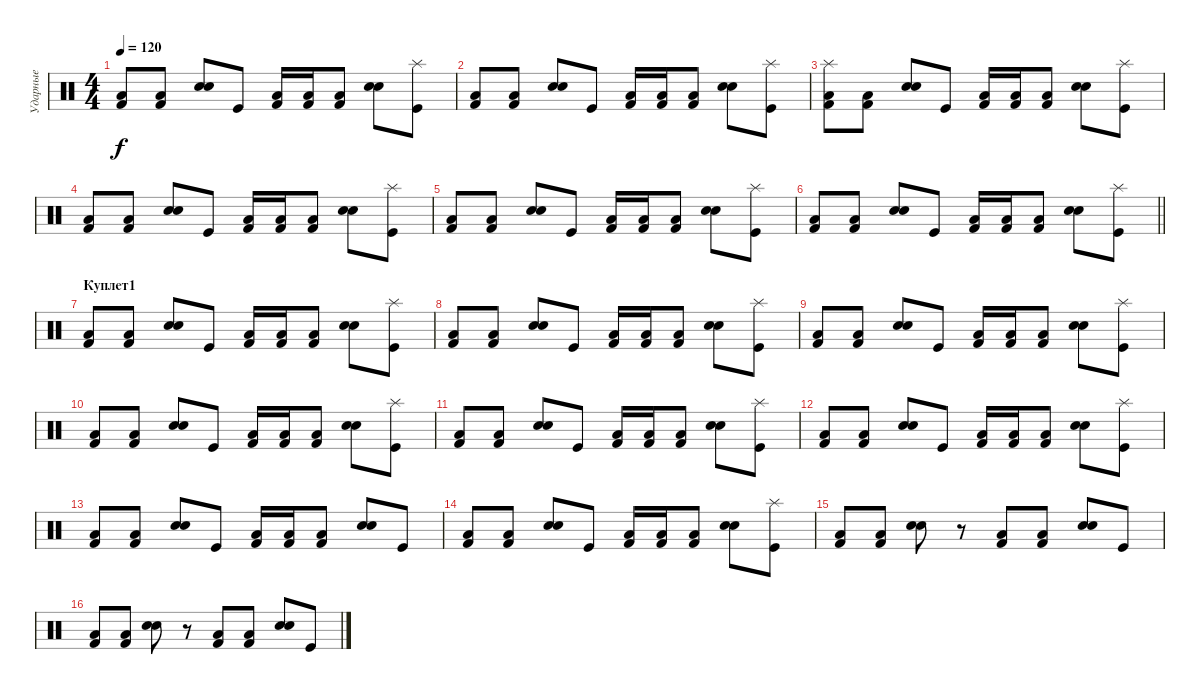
\track ("Ударные" "Ударные") {instrument percussion}
\staff {score}
\articulation defaults
\ts (4 4)
\tempo 120
\clef neutral
\ks c
("Low Floor Tom (hit)" "Kick (hit) 2").8{dy f} ("Low Floor Tom (hit)" "Kick (hit) 2").8 ("Electric Snare (hit)" "Snare (hit) 2").8 "Kick (hit)".8 ("Low Floor Tom (hit)" "Kick (hit) 2").16 ("Low Floor Tom (hit)" "Kick (hit) 2").16 ("Low Floor Tom (hit)" "Kick (hit) 2").8 ("Electric Snare (hit)" "Snare (hit) 2").8 ("Splash (hit)" "Kick (hit)").8 |
("Low Floor Tom (hit)" "Kick (hit) 2").8 ("Low Floor Tom (hit)" "Kick (hit) 2").8 ("Electric Snare (hit)" "Snare (hit) 2").8 "Kick (hit)".8 ("Low Floor Tom (hit)" "Kick (hit) 2").16 ("Low Floor Tom (hit)" "Kick (hit) 2").16 ("Low Floor Tom (hit)" "Kick (hit) 2").8 ("Electric Snare (hit)" "Snare (hit) 2").8 ("Splash (hit)" "Kick (hit)").8 |
("Splash (hit)" "Low Floor Tom (hit)" "Kick (hit) 2").8 ("Low Floor Tom (hit)" "Kick (hit) 2").8 ("Electric Snare (hit)" "Snare (hit) 2").8 "Kick (hit)".8 ("Low Floor Tom (hit)" "Kick (hit) 2").16 ("Low Floor Tom (hit)" "Kick (hit) 2").16 ("Low Floor Tom (hit)" "Kick (hit) 2").8 ("Electric Snare (hit)" "Snare (hit) 2").8 ("Splash (hit)" "Kick (hit)").8 |
("Low Floor Tom (hit)" "Kick (hit) 2").8 ("Low Floor Tom (hit)" "Kick (hit) 2").8 ("Electric Snare (hit)" "Snare (hit) 2").8 "Kick (hit)".8 ("Low Floor Tom (hit)" "Kick (hit) 2").16 ("Low Floor Tom (hit)" "Kick (hit) 2").16 ("Low Floor Tom (hit)" "Kick (hit) 2").8 ("Electric Snare (hit)" "Snare (hit) 2").8 ("Splash (hit)" "Kick (hit)").8 |
("Low Floor Tom (hit)" "Kick (hit) 2").8 ("Low Floor Tom (hit)" "Kick (hit) 2").8 ("Electric Snare (hit)" "Snare (hit) 2").8 "Kick (hit)".8 ("Low Floor Tom (hit)" "Kick (hit) 2").16 ("Low Floor Tom (hit)" "Kick (hit) 2").16 ("Low Floor Tom (hit)" "Kick (hit) 2").8 ("Electric Snare (hit)" "Snare (hit) 2").8 ("Splash (hit)" "Kick (hit)").8 |
\barLineRight lightlight
("Low Floor Tom (hit)" "Kick (hit) 2").8 ("Low Floor Tom (hit)" "Kick (hit) 2").8 ("Electric Snare (hit)" "Snare (hit) 2").8 "Kick (hit)".8 ("Low Floor Tom (hit)" "Kick (hit) 2").16 ("Low Floor Tom (hit)" "Kick (hit) 2").16 ("Low Floor Tom (hit)" "Kick (hit) 2").8 ("Electric Snare (hit)" "Snare (hit) 2").8 ("Splash (hit)" "Kick (hit)").8 |
\section ("" "Куплет1")
("Low Floor Tom (hit)" "Kick (hit) 2").8 ("Low Floor Tom (hit)" "Kick (hit) 2").8 ("Electric Snare (hit)" "Snare (hit) 2").8 "Kick (hit)".8 ("Low Floor Tom (hit)" "Kick (hit) 2").16 ("Low Floor Tom (hit)" "Kick (hit) 2").16 ("Low Floor Tom (hit)" "Kick (hit) 2").8 ("Electric Snare (hit)" "Snare (hit) 2").8 ("Splash (hit)" "Kick (hit)").8 |
("Low Floor Tom (hit)" "Kick (hit) 2").8 ("Low Floor Tom (hit)" "Kick (hit) 2").8 ("Electric Snare (hit)" "Snare (hit) 2").8 "Kick (hit)".8 ("Low Floor Tom (hit)" "Kick (hit) 2").16 ("Low Floor Tom (hit)" "Kick (hit) 2").16 ("Low Floor Tom (hit)" "Kick (hit) 2").8 ("Electric Snare (hit)" "Snare (hit) 2").8 ("Splash (hit)" "Kick (hit)").8 |
("Low Floor Tom (hit)" "Kick (hit) 2").8 ("Low Floor Tom (hit)" "Kick (hit) 2").8 ("Electric Snare (hit)" "Snare (hit) 2").8 "Kick (hit)".8 ("Low Floor Tom (hit)" "Kick (hit) 2").16 ("Low Floor Tom (hit)" "Kick (hit) 2").16 ("Low Floor Tom (hit)" "Kick (hit) 2").8 ("Electric Snare (hit)" "Snare (hit) 2").8 ("Splash (hit)" "Kick (hit)").8 |
("Low Floor Tom (hit)" "Kick (hit) 2").8 ("Low Floor Tom (hit)" "Kick (hit) 2").8 ("Electric Snare (hit)" "Snare (hit) 2").8 "Kick (hit)".8 ("Low Floor Tom (hit)" "Kick (hit) 2").16 ("Low Floor Tom (hit)" "Kick (hit) 2").16 ("Low Floor Tom (hit)" "Kick (hit) 2").8 ("Electric Snare (hit)" "Snare (hit) 2").8 ("Splash (hit)" "Kick (hit)").8 |
("Low Floor Tom (hit)" "Kick (hit) 2").8 ("Low Floor Tom (hit)" "Kick (hit) 2").8 ("Electric Snare (hit)" "Snare (hit) 2").8 "Kick (hit)".8 ("Low Floor Tom (hit)" "Kick (hit) 2").16 ("Low Floor Tom (hit)" "Kick (hit) 2").16 ("Low Floor Tom (hit)" "Kick (hit) 2").8 ("Electric Snare (hit)" "Snare (hit) 2").8 ("Splash (hit)" "Kick (hit)").8 |
("Low Floor Tom (hit)" "Kick (hit) 2").8 ("Low Floor Tom (hit)" "Kick (hit) 2").8 ("Electric Snare (hit)" "Snare (hit) 2").8 "Kick (hit)".8 ("Low Floor Tom (hit)" "Kick (hit) 2").16 ("Low Floor Tom (hit)" "Kick (hit) 2").16 ("Low Floor Tom (hit)" "Kick (hit) 2").8 ("Electric Snare (hit)" "Snare (hit) 2").8 ("Splash (hit)" "Kick (hit)").8 |
("Low Floor Tom (hit)" "Kick (hit) 2").8 ("Low Floor Tom (hit)" "Kick (hit) 2").8 ("Electric Snare (hit)" "Snare (hit) 2").8 "Kick (hit)".8 ("Low Floor Tom (hit)" "Kick (hit) 2").16 ("Low Floor Tom (hit)" "Kick (hit) 2").16 ("Low Floor Tom (hit)" "Kick (hit) 2").8 ("Electric Snare (hit)" "Snare (hit) 2").8 "Kick (hit)".8 |
("Low Floor Tom (hit)" "Kick (hit) 2").8 ("Low Floor Tom (hit)" "Kick (hit) 2").8 ("Electric Snare (hit)" "Snare (hit) 2").8 "Kick (hit)".8 ("Low Floor Tom (hit)" "Kick (hit) 2").16 ("Low Floor Tom (hit)" "Kick (hit) 2").16 ("Low Floor Tom (hit)" "Kick (hit) 2").8 ("Electric Snare (hit)" "Snare (hit) 2").8 ("Splash (hit)" "Kick (hit)").8 |
("Low Floor Tom (hit)" "Kick (hit) 2").8 ("Low Floor Tom (hit)" "Kick (hit) 2").8 ("Electric Snare (hit)" "Snare (hit) 2").8 r.8 ("Low Floor Tom (hit)" "Kick (hit) 2").8 ("Low Floor Tom (hit)" "Kick (hit) 2").8 ("Electric Snare (hit)" "Snare (hit) 2").8 "Kick (hit)".8 |
("Low Floor Tom (hit)" "Kick (hit) 2").8 ("Low Floor Tom (hit)" "Kick (hit) 2").8 ("Electric Snare (hit)" "Snare (hit) 2").8 r.8 ("Low Floor Tom (hit)" "Kick (hit) 2").8 ("Low Floor Tom (hit)" "Kick (hit) 2").8 ("Electric Snare (hit)" "Snare (hit) 2").8 "Kick (hit)".8
